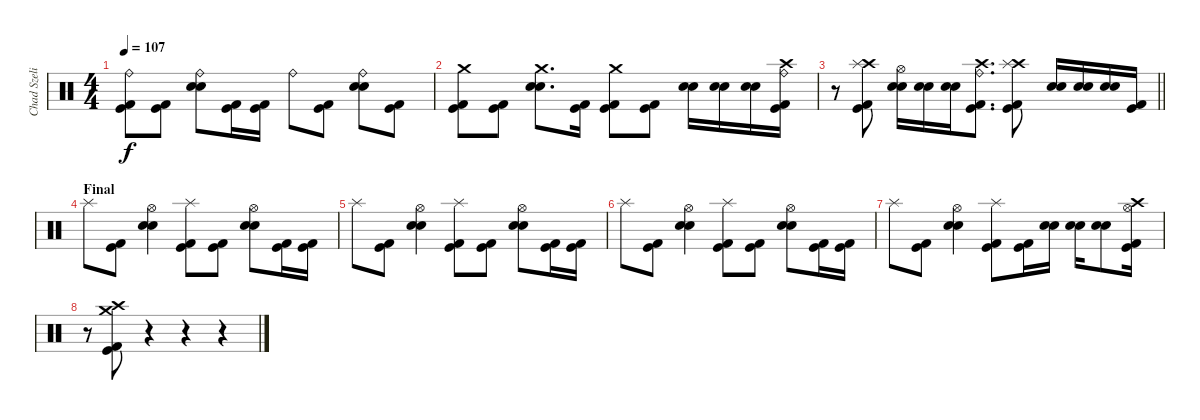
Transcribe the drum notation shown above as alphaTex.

\track ("Chad Szeliga" "Chad Szeli") {instrument percussion}
\staff {score}
\articulation defaults
\ts (4 4)
\tempo 107
\clef neutral
\ks c
("Kick (hit) 2" "Kick (hit)" "Ride (bell)").8{dy f} ("Kick (hit) 2" "Kick (hit)").8 ("Snare (hit) 2" "Snare (hit) 2" "Ride (bell)").8 ("Kick (hit) 2" "Kick (hit)").16 ("Kick (hit) 2" "Kick (hit)").16 "Ride (bell)".8 ("Kick (hit) 2" "Kick (hit)").8 ("Snare (hit) 2" "Snare (hit) 2" "Ride (bell)").8 ("Kick (hit) 2" "Kick (hit)").8 |
("Crash medium (hit)" "Kick (hit) 2" "Kick (hit)").8 ("Kick (hit) 2" "Kick (hit)").8 ("Crash medium (hit)" "Snare (hit) 2" "Snare (hit) 2").8{d} ("Kick (hit) 2" "Kick (hit)").16 ("Crash medium (hit)" "Kick (hit) 2" "Kick (hit)").8 ("Kick (hit) 2" "Kick (hit)").8 ("Snare (hit) 2" "Snare (hit) 2").16 ("Snare (hit) 2" "Snare (hit) 2").16 ("Snare (hit) 2" "Snare (hit) 2").16 ("Crash high (hit)" "Kick (hit) 2" "Kick (hit)" "Ride (bell)").16 |
\barLineRight lightlight
r.8 ("Crash high (hit)" "Kick (hit) 2" "Kick (hit)" "Splash (hit)").8 ("Snare (hit) 2" "Snare (hit) 2" "Hi-Hat (open)").16 ("Snare (hit) 2" "Snare (hit) 2").16 ("Snare (hit) 2" "Snare (hit) 2").16 ("Crash high (hit)" "Kick (hit) 2" "Kick (hit)" "Ride (bell)").8{d} ("Crash high (hit)" "Kick (hit) 2" "Kick (hit)" "Splash (hit)").8 ("Snare (hit) 2" "Snare (hit) 2").16 ("Snare (hit) 2" "Snare (hit) 2").16 ("Snare (hit) 2" "Snare (hit) 2").16 ("Kick (hit) 2" "Kick (hit)").16 |
\section ("" "Final")
"Splash (hit)".8 ("Kick (hit) 2" "Kick (hit)").8 ("Snare (hit) 2" "Snare (hit) 2" "Hi-Hat (open)").4 ("Kick (hit) 2" "Kick (hit)" "Splash (hit)").8 ("Kick (hit) 2" "Kick (hit)").8 ("Snare (hit) 2" "Snare (hit) 2" "Hi-Hat (open)").8 ("Kick (hit) 2" "Kick (hit)").16 ("Kick (hit) 2" "Kick (hit)").16 |
"Splash (hit)".8 ("Kick (hit) 2" "Kick (hit)").8 ("Snare (hit) 2" "Snare (hit) 2" "Hi-Hat (open)").4 ("Kick (hit) 2" "Kick (hit)" "Splash (hit)").8 ("Kick (hit) 2" "Kick (hit)").8 ("Snare (hit) 2" "Snare (hit) 2" "Hi-Hat (open)").8 ("Kick (hit) 2" "Kick (hit)").16 ("Kick (hit) 2" "Kick (hit)").16 |
"Splash (hit)".8 ("Kick (hit) 2" "Kick (hit)").8 ("Snare (hit) 2" "Snare (hit) 2" "Hi-Hat (open)").4 ("Kick (hit) 2" "Kick (hit)" "Splash (hit)").8 ("Kick (hit) 2" "Kick (hit)").8 ("Snare (hit) 2" "Snare (hit) 2" "Hi-Hat (open)").8 ("Kick (hit) 2" "Kick (hit)").16 ("Kick (hit) 2" "Kick (hit)").16 |
"Splash (hit)".8 ("Kick (hit) 2" "Kick (hit)").8 ("Snare (hit) 2" "Snare (hit) 2" "Hi-Hat (open)").4 ("Kick (hit) 2" "Kick (hit)" "Splash (hit)").8 ("Kick (hit) 2" "Kick (hit)").16 ("Snare (hit) 2" "Snare (hit) 2").16 ("Snare (hit) 2" "Snare (hit) 2").16 ("Snare (hit) 2" "Snare (hit) 2").8 ("Crash high (hit)" "Kick (hit) 2" "Kick (hit)" "Hi-Hat (open)").16 |
r.8 ("Crash high (hit)" "Kick (hit) 2" "Kick (hit)" "Crash medium (hit)").8 r.4 r.4 r.4
